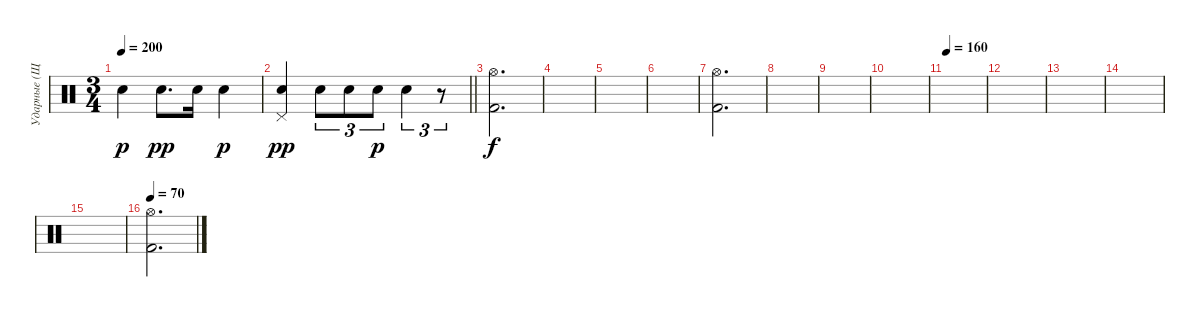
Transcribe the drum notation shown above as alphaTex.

\track ("Ударные (Щетками)" "Ударные (Щ") {instrument percussion}
\staff {score}
\articulation defaults
\ts (3 4)
\tempo 200
\clef neutral
\ks c "Snare (hit) 2".4{dy p} "Snare (hit) 2".8{d dy pp} "Snare (hit) 2".16 "Snare (hit) 2".4{dy p}
|
\barLineRight lightlight
("Pedal Hi-Hat (hit)" "Snare (hit) 2").4{dy pp} "Snare (hit) 2".8{tu (3 2)} "Snare (hit) 2".8{tu (3 2)} "Snare (hit) 2".8{tu (3 2) dy p} "Snare (hit) 2".4{tu (3 2)} r.8{tu (3 2)} |
("Kick (hit) 2" "Hi-Hat (open)").2{d dy f} |
|
|
|
("Kick (hit) 2" "Hi-Hat (open)").2{d} |
|
|
|
\tempo 160
|
|
|
|
|
\tempo 70
("Kick (hit) 2" "Hi-Hat (open)").2{d}
